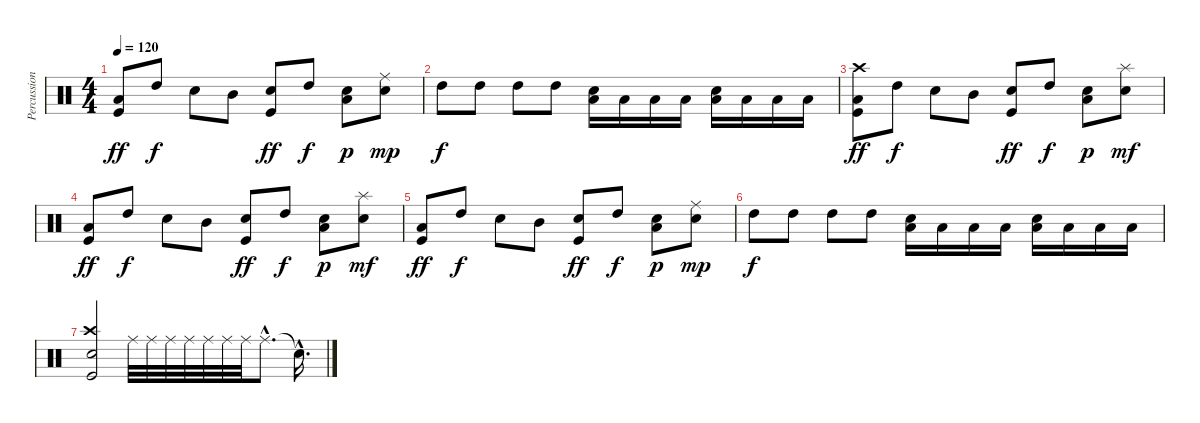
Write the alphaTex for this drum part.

\track ("Percussion" "Percussion") {instrument percussion}
\staff {score}
\articulation defaults
\ts (4 4)
\tempo 120
\clef neutral
\ks c
("Kick (hit)" "Low Tom (hit)").8{dy ff} "High Tom (hit)".8{dy f} "Snare (hit) 2".8 "Mid Tom (hit)".8 ("Kick (hit)" "Snare (hit) 2").8{dy ff} "High Tom (hit)".8{dy f} ("Snare (hit) 2" "Low Tom (hit)").8{dy p} ("Ride (middle)" "Snare (hit) 2").8{dy mp} |
"High Tom (hit)".8{dy f} "High Tom (hit)".8 "High Tom (hit)".8 "High Tom (hit)".8 ("Low Tom (hit)" "Snare (hit) 2").16 "Low Tom (hit)".16 "Low Tom (hit)".16 "Low Tom (hit)".16 ("Low Tom (hit)" "Snare (hit) 2").16 "Low Tom (hit)".16 "Low Tom (hit)".16 "Low Tom (hit)".16 |
("Kick (hit)" "Low Tom (hit)" "Crash high (hit)").8{dy ff} "High Tom (hit)".8{dy f} "Snare (hit) 2".8 "Mid Tom (hit)".8 ("Kick (hit)" "Snare (hit) 2").8{dy ff} "High Tom (hit)".8{dy f} ("Snare (hit) 2" "Low Tom (hit)").8{dy p} ("Splash (hit)" "Snare (hit) 2").8{dy mf} |
("Kick (hit)" "Low Tom (hit)").8{dy ff} "High Tom (hit)".8{dy f} "Snare (hit) 2".8 "Mid Tom (hit)".8 ("Kick (hit)" "Snare (hit) 2").8{dy ff} "High Tom (hit)".8{dy f} ("Snare (hit) 2" "Low Tom (hit)").8{dy p} ("Splash (hit)" "Snare (hit) 2").8{dy mf} |
("Kick (hit)" "Low Tom (hit)").8{dy ff} "High Tom (hit)".8{dy f} "Snare (hit) 2".8 "Mid Tom (hit)".8 ("Kick (hit)" "Snare (hit) 2").8{dy ff} "High Tom (hit)".8{dy f} ("Snare (hit) 2" "Low Tom (hit)").8{dy p} ("Ride (middle)" "Snare (hit) 2").8{dy mp} |
"High Tom (hit)".8{dy f} "High Tom (hit)".8 "High Tom (hit)".8 "High Tom (hit)".8 ("Low Tom (hit)" "Snare (hit) 2").16 "Low Tom (hit)".16 "Low Tom (hit)".16 "Low Tom (hit)".16 ("Low Tom (hit)" "Snare (hit) 2").16 "Low Tom (hit)".16 "Low Tom (hit)".16 "Low Tom (hit)".16 |
("Crash high (hit)" "Electric Snare (hit)" "Kick (hit)").2 "Ride (middle)".32 "Ride (middle)".32 "Ride (middle)".32 "Ride (middle)".32 "Ride (middle)".32 "Ride (middle)".32 "Ride (middle)".32 "Ride (middle)"{hac}.8{d} "Snare (hit)"{hac t}.16{d}
